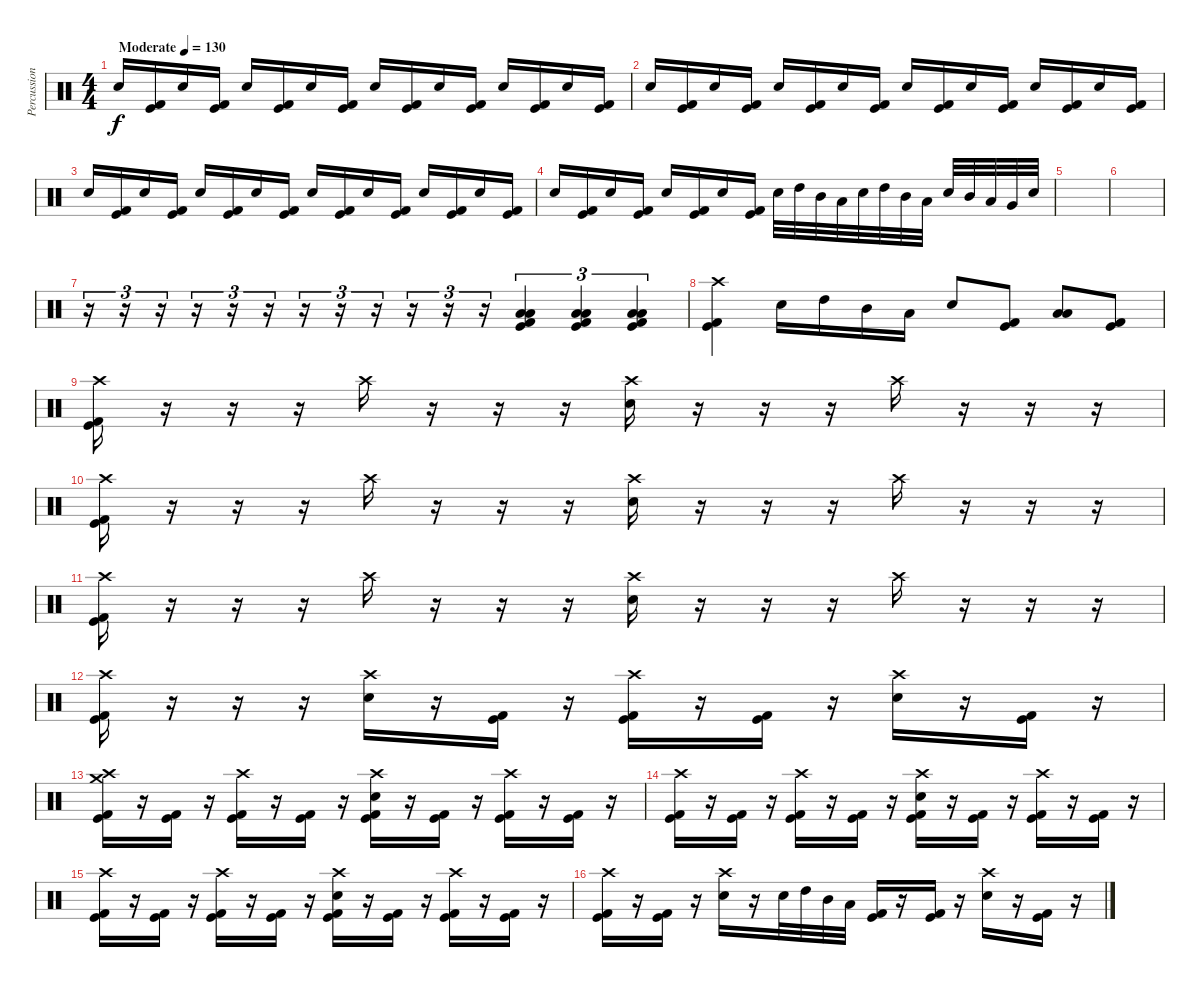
\track ("Percussion" "Percussion") {instrument percussion}
\staff {score}
\articulation defaults
\ts (4 4)
\tempo (130 "Moderate")
\clef neutral
\ks c "Electric Snare (hit)".16{dy f}
("Kick (hit)" "Kick (hit) 2").16 "Electric Snare (hit)".16 ("Kick (hit)" "Kick (hit) 2").16 "Electric Snare (hit)".16 ("Kick (hit)" "Kick (hit) 2").16 "Electric Snare (hit)".16 ("Kick (hit)" "Kick (hit) 2").16 "Electric Snare (hit)".16 ("Kick (hit)" "Kick (hit) 2").16 "Electric Snare (hit)".16 ("Kick (hit)" "Kick (hit) 2").16 "Electric Snare (hit)".16 ("Kick (hit)" "Kick (hit) 2").16 "Electric Snare (hit)".16 ("Kick (hit)" "Kick (hit) 2").16 |
"Electric Snare (hit)".16 ("Kick (hit)" "Kick (hit) 2").16 "Electric Snare (hit)".16 ("Kick (hit)" "Kick (hit) 2").16 "Electric Snare (hit)".16 ("Kick (hit)" "Kick (hit) 2").16 "Electric Snare (hit)".16 ("Kick (hit)" "Kick (hit) 2").16 "Electric Snare (hit)".16 ("Kick (hit)" "Kick (hit) 2").16 "Electric Snare (hit)".16 ("Kick (hit)" "Kick (hit) 2").16 "Electric Snare (hit)".16 ("Kick (hit)" "Kick (hit) 2").16 "Electric Snare (hit)".16 ("Kick (hit)" "Kick (hit) 2").16 |
"Electric Snare (hit)".16 ("Kick (hit)" "Kick (hit) 2").16 "Electric Snare (hit)".16 ("Kick (hit)" "Kick (hit) 2").16 "Electric Snare (hit)".16 ("Kick (hit)" "Kick (hit) 2").16 "Electric Snare (hit)".16 ("Kick (hit)" "Kick (hit) 2").16 "Electric Snare (hit)".16 ("Kick (hit)" "Kick (hit) 2").16 "Electric Snare (hit)".16 ("Kick (hit)" "Kick (hit) 2").16 "Electric Snare (hit)".16 ("Kick (hit)" "Kick (hit) 2").16 "Electric Snare (hit)".16 ("Kick (hit)" "Kick (hit) 2").16 |
"Electric Snare (hit)".16 ("Kick (hit)" "Kick (hit) 2").16 "Electric Snare (hit)".16 ("Kick (hit)" "Kick (hit) 2").16 "Electric Snare (hit)".16 ("Kick (hit)" "Kick (hit) 2").16 "Electric Snare (hit)".16 ("Kick (hit)" "Kick (hit) 2").16 "Electric Snare (hit)".32 "High Tom (hit)".32 "Mid Tom (hit)".32 "Low Tom (hit)".32 "Electric Snare (hit)".32 "High Tom (hit)".32 "Mid Tom (hit)".32 "Low Tom (hit)".32 "Electric Snare (hit)".32 "Mid Tom (hit)".32 "Low Tom (hit)".32 "Very Low Tom (hit)".32 "Electric Snare (hit)".32 |
|
|
r.16{tu (3 2)} r.16{tu (3 2)} r.16{tu (3 2)} r.16{tu (3 2)} r.16{tu (3 2)} r.16{tu (3 2)} r.16{tu (3 2)} r.16{tu (3 2)} r.16{tu (3 2)} r.16{tu (3 2)} r.16{tu (3 2)} r.16{tu (3 2)} ("Low Tom (hit)" "Low Floor Tom (hit)" "Kick (hit)" "Kick (hit) 2").4{tu (3 2)} ("Low Tom (hit)" "Low Floor Tom (hit)" "Kick (hit)" "Kick (hit) 2").4{tu (3 2)} ("Low Tom (hit)" "Low Floor Tom (hit)" "Kick (hit)" "Kick (hit) 2").4{tu (3 2)} |
("Crash high (hit)" "Kick (hit)" "Kick (hit) 2").4 "Electric Snare (hit)".16 "High Tom (hit)".16 "Mid Tom (hit)".16 "Low Tom (hit)".16 "Electric Snare (hit)".8 ("Kick (hit)" "Kick (hit) 2").8 ("Low Tom (hit)" "Low Floor Tom (hit)").8 ("Kick (hit)" "Kick (hit) 2").8 |
("Crash high (hit)" "Kick (hit)" "Kick (hit) 2").16 r.16 r.16 r.16 "Crash high (hit)".16 r.16 r.16 r.16 ("Crash high (hit)" "Electric Snare (hit)").16 r.16 r.16 r.16 "Crash high (hit)".16 r.16 r.16 r.16 |
("Crash high (hit)" "Kick (hit)" "Kick (hit) 2").16 r.16 r.16 r.16 "Crash high (hit)".16 r.16 r.16 r.16 ("Crash high (hit)" "Electric Snare (hit)").16 r.16 r.16 r.16 "Crash high (hit)".16 r.16 r.16 r.16 |
("Crash high (hit)" "Kick (hit)" "Kick (hit) 2").16 r.16 r.16 r.16 "Crash high (hit)".16 r.16 r.16 r.16 ("Crash high (hit)" "Electric Snare (hit)").16 r.16 r.16 r.16 "Crash high (hit)".16 r.16 r.16 r.16 |
("Crash high (hit)" "Kick (hit)" "Kick (hit) 2").16 r.16 r.16 r.16 ("Crash high (hit)" "Electric Snare (hit)").16 r.16 ("Kick (hit)" "Kick (hit) 2").16 r.16 ("Crash high (hit)" "Kick (hit)" "Kick (hit) 2").16 r.16 ("Kick (hit)" "Kick (hit) 2").16 r.16 ("Crash high (hit)" "Electric Snare (hit)").16 r.16 ("Kick (hit)" "Kick (hit) 2").16 r.16 |
("Crash high (hit)" "Crash medium (hit)" "Kick (hit)" "Kick (hit) 2").16 r.16 ("Kick (hit)" "Kick (hit) 2").16 r.16 ("Crash high (hit)" "Kick (hit)" "Kick (hit) 2").16 r.16 ("Kick (hit)" "Kick (hit) 2").16 r.16 ("Crash high (hit)" "Electric Snare (hit)" "Kick (hit)" "Kick (hit) 2").16 r.16 ("Kick (hit)" "Kick (hit) 2").16 r.16 ("Crash high (hit)" "Kick (hit)" "Kick (hit) 2").16 r.16 ("Kick (hit)" "Kick (hit) 2").16 r.16 |
("Crash high (hit)" "Kick (hit)" "Kick (hit) 2").16 r.16 ("Kick (hit)" "Kick (hit) 2").16 r.16 ("Crash high (hit)" "Kick (hit)" "Kick (hit) 2").16 r.16 ("Kick (hit)" "Kick (hit) 2").16 r.16 ("Crash high (hit)" "Electric Snare (hit)" "Kick (hit)" "Kick (hit) 2").16 r.16 ("Kick (hit)" "Kick (hit) 2").16 r.16 ("Crash high (hit)" "Kick (hit)" "Kick (hit) 2").16 r.16 ("Kick (hit)" "Kick (hit) 2").16 r.16 |
("Crash high (hit)" "Kick (hit)" "Kick (hit) 2").16 r.16 ("Kick (hit)" "Kick (hit) 2").16 r.16 ("Crash high (hit)" "Kick (hit)" "Kick (hit) 2").16 r.16 ("Kick (hit)" "Kick (hit) 2").16 r.16 ("Crash high (hit)" "Electric Snare (hit)" "Kick (hit)" "Kick (hit) 2").16 r.16 ("Kick (hit)" "Kick (hit) 2").16 r.16 ("Crash high (hit)" "Kick (hit)" "Kick (hit) 2").16 r.16 ("Kick (hit)" "Kick (hit) 2").16 r.16 |
("Crash high (hit)" "Kick (hit)" "Kick (hit) 2").16 r.16 ("Kick (hit)" "Kick (hit) 2").16 r.16 ("Crash high (hit)" "Electric Snare (hit)").16 r.16 "Electric Snare (hit)".32 "High Tom (hit)".32 "Mid Tom (hit)".32 "Low Tom (hit)".32 ("Kick (hit)" "Kick (hit) 2").16 r.16 ("Kick (hit)" "Kick (hit) 2").16 r.16 ("Crash high (hit)" "Electric Snare (hit)").16 r.16 ("Kick (hit)" "Kick (hit) 2").16 r.16
